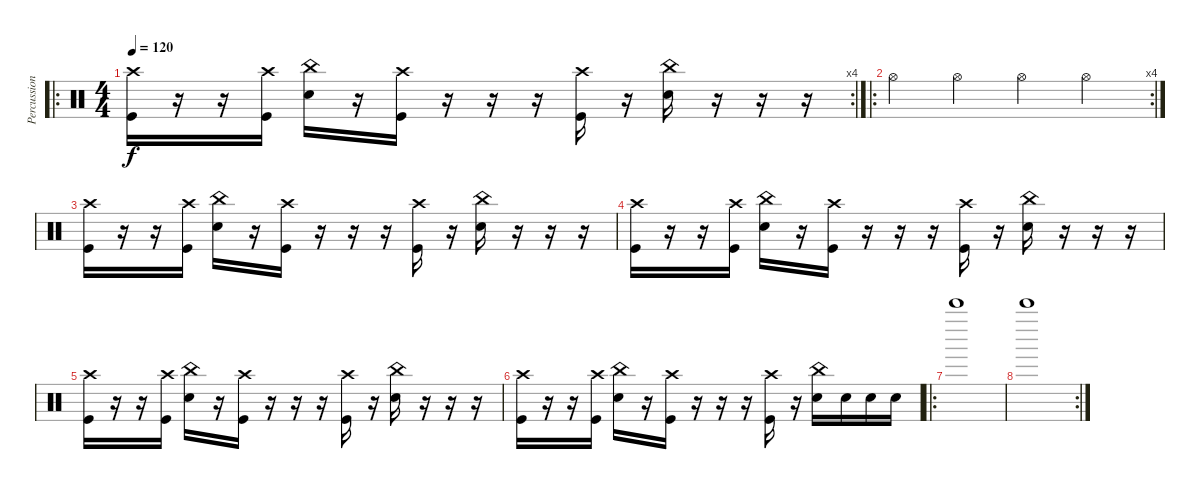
\track ("Percussions" "Percussion") {instrument percussion}
\staff {score}
\articulation defaults
\ro
\rc 4
\ts (4 4)
\tempo 120
\clef neutral
\ks c
("Crash high (hit)" "Kick (hit)").16{dy f} r.16 r.16 ("Crash high (hit)" "Kick (hit)").16 ("Electric Snare (hit)" "China (hit)").16 r.16 ("Crash high (hit)" "Kick (hit)").16 r.16 r.16 r.16 ("Crash high (hit)" "Kick (hit)").16 r.16 ("Electric Snare (hit)" "China (hit)").16 r.16 r.16 r.16 |
\ro
\rc 4 "Hi-Hat (open)".4 "Hi-Hat (open)".4 "Hi-Hat (open)".4 "Hi-Hat (open)".4
|
("Crash high (hit)" "Kick (hit)").16 r.16 r.16 ("Crash high (hit)" "Kick (hit)").16 ("Electric Snare (hit)" "China (hit)").16 r.16 ("Crash high (hit)" "Kick (hit)").16 r.16 r.16 r.16 ("Crash high (hit)" "Kick (hit)").16 r.16 ("Electric Snare (hit)" "China (hit)").16 r.16 r.16 r.16 |
("Crash high (hit)" "Kick (hit)").16 r.16 r.16 ("Crash high (hit)" "Kick (hit)").16 ("Electric Snare (hit)" "China (hit)").16 r.16 ("Crash high (hit)" "Kick (hit)").16 r.16 r.16 r.16 ("Crash high (hit)" "Kick (hit)").16 r.16 ("Electric Snare (hit)" "China (hit)").16 r.16 r.16 r.16 |
("Crash high (hit)" "Kick (hit)").16 r.16 r.16 ("Crash high (hit)" "Kick (hit)").16 ("Electric Snare (hit)" "China (hit)").16 r.16 ("Crash high (hit)" "Kick (hit)").16 r.16 r.16 r.16 ("Crash high (hit)" "Kick (hit)").16 r.16 ("Electric Snare (hit)" "China (hit)").16 r.16 r.16 r.16 |
("Crash high (hit)" "Kick (hit)").16 r.16 r.16 ("Crash high (hit)" "Kick (hit)").16 ("Electric Snare (hit)" "China (hit)").16 r.16 ("Crash high (hit)" "Kick (hit)").16 r.16 r.16 r.16 ("Crash high (hit)" "Kick (hit)").16 r.16 ("Electric Snare (hit)" "China (hit)").16 "Electric Snare (hit)".16 "Electric Snare (hit)".16 "Electric Snare (hit)".16 |
\ro "Bell Tree (hit)".1
|
\rc 2 "Bell Tree (hit)".1
